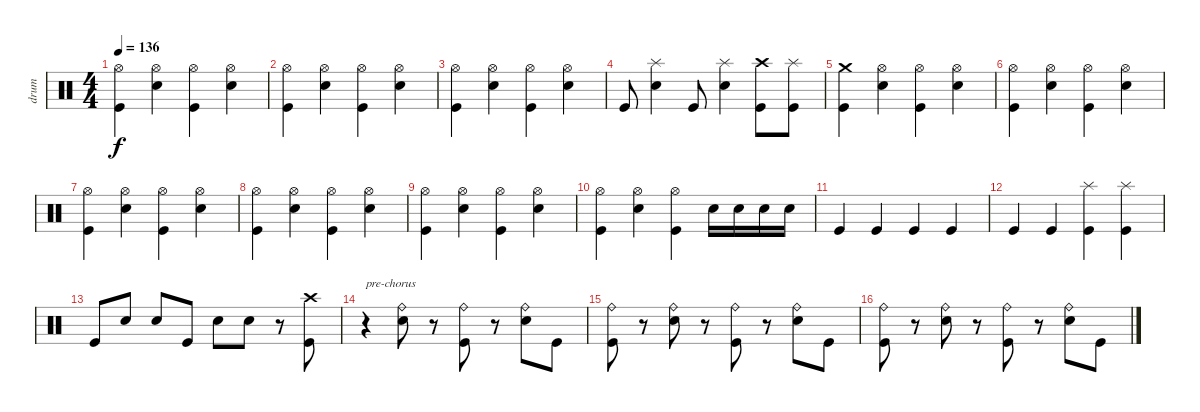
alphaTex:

\track ("drum" "drum") {instrument percussion}
\staff {score}
\articulation defaults
\ts (4 4)
\tempo 136
\clef neutral
\ks c
("Kick (hit)" "Hi-Hat (open)").4{dy f} ("Electric Snare (hit)" "Hi-Hat (open)").4 ("Kick (hit)" "Hi-Hat (open)").4 ("Electric Snare (hit)" "Hi-Hat (open)").4 |
("Kick (hit)" "Hi-Hat (open)").4 ("Electric Snare (hit)" "Hi-Hat (open)").4 ("Kick (hit)" "Hi-Hat (open)").4 ("Electric Snare (hit)" "Hi-Hat (open)").4 |
("Kick (hit)" "Hi-Hat (open)").4 ("Electric Snare (hit)" "Hi-Hat (open)").4 ("Kick (hit)" "Hi-Hat (open)").4 ("Electric Snare (hit)" "Hi-Hat (open)").4 |
"Kick (hit)".8 ("Electric Snare (hit)" "Splash (hit)").4 "Kick (hit)".8 ("Electric Snare (hit)" "Splash (hit)").4 ("Kick (hit)" "Crash high (hit)").8 ("Kick (hit)" "Splash (hit)").8 |
("Kick (hit)" "Crash medium (hit)").4 ("Electric Snare (hit)" "Hi-Hat (open)").4 ("Kick (hit)" "Hi-Hat (open)").4 ("Electric Snare (hit)" "Hi-Hat (open)").4 |
("Kick (hit)" "Hi-Hat (open)").4 ("Electric Snare (hit)" "Hi-Hat (open)").4 ("Kick (hit)" "Hi-Hat (open)").4 ("Electric Snare (hit)" "Hi-Hat (open)").4 |
("Kick (hit)" "Hi-Hat (open)").4 ("Electric Snare (hit)" "Hi-Hat (open)").4 ("Kick (hit)" "Hi-Hat (open)").4 ("Electric Snare (hit)" "Hi-Hat (open)").4 |
("Kick (hit)" "Hi-Hat (open)").4 ("Electric Snare (hit)" "Hi-Hat (open)").4 ("Kick (hit)" "Hi-Hat (open)").4 ("Electric Snare (hit)" "Hi-Hat (open)").4 |
("Kick (hit)" "Hi-Hat (open)").4 ("Electric Snare (hit)" "Hi-Hat (open)").4 ("Kick (hit)" "Hi-Hat (open)").4 ("Electric Snare (hit)" "Hi-Hat (open)").4 |
("Kick (hit)" "Hi-Hat (open)").4 ("Electric Snare (hit)" "Hi-Hat (open)").4 ("Kick (hit)" "Hi-Hat (open)").4 "Electric Snare (hit)".16 "Electric Snare (hit)".16 "Electric Snare (hit)".16 "Electric Snare (hit)".16 |
"Kick (hit)".4 "Kick (hit)".4 "Kick (hit)".4 "Kick (hit)".4 |
"Kick (hit)".4 "Kick (hit)".4 ("Kick (hit)" "Splash (hit)").4 ("Kick (hit)" "Splash (hit)").4 |
"Kick (hit)".8 "Electric Snare (hit)".8 "Electric Snare (hit)".8 "Kick (hit)".8 "Electric Snare (hit)".8 "Electric Snare (hit)".8 r.8 ("Kick (hit)" "Crash high (hit)").8 |
r.4{txt "pre-chorus"} ("Electric Snare (hit)" "Ride (bell)").8 r.8 ("Kick (hit)" "Ride (bell)").8 r.8 ("Electric Snare (hit)" "Ride (bell)").8 "Kick (hit)".8 |
("Kick (hit)" "Ride (bell)").8 r.8 ("Electric Snare (hit)" "Ride (bell)").8 r.8 ("Kick (hit)" "Ride (bell)").8 r.8 ("Electric Snare (hit)" "Ride (bell)").8 "Kick (hit)".8 |
("Kick (hit)" "Ride (bell)").8 r.8 ("Electric Snare (hit)" "Ride (bell)").8 r.8 ("Kick (hit)" "Ride (bell)").8 r.8 ("Electric Snare (hit)" "Ride (bell)").8 "Kick (hit)".8
